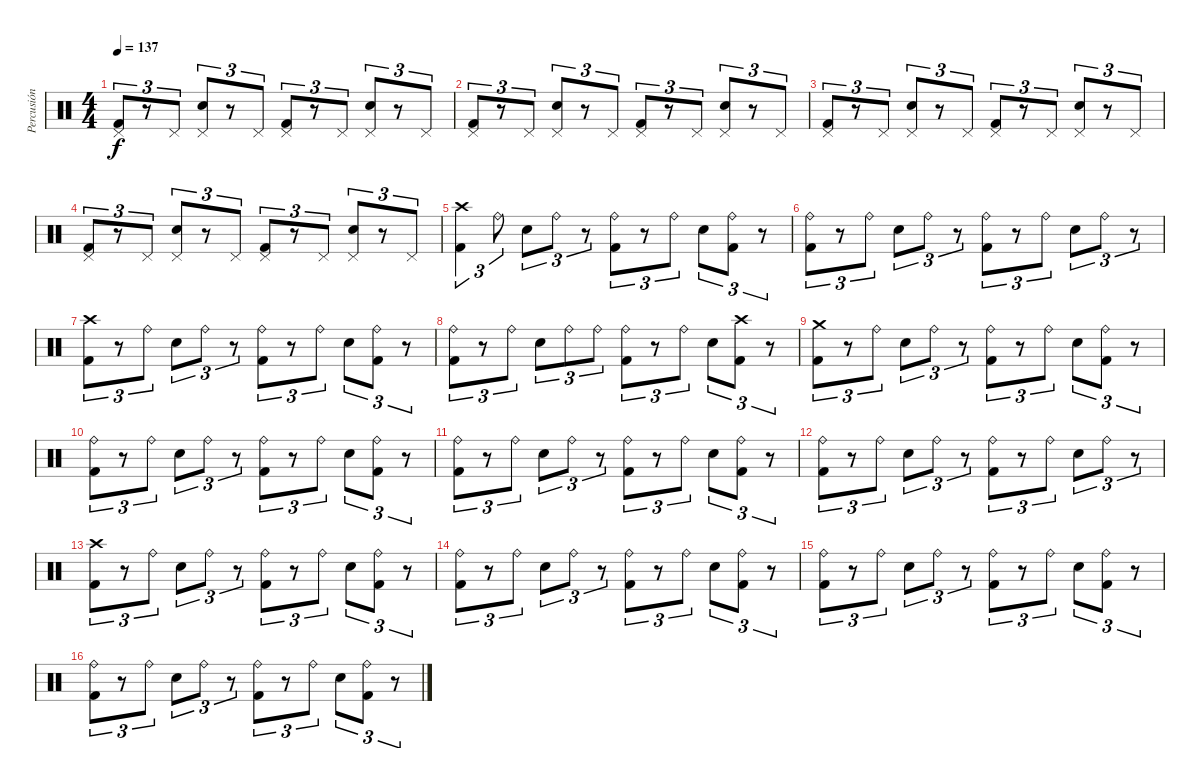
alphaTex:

\track ("Percusión" "Percusión") {instrument percussion}
\staff {score}
\articulation defaults
\ts (4 4)
\tempo 137
\clef neutral
\ks c
("Kick (hit) 2" "Pedal Hi-Hat (hit)").8{tu (3 2) dy f} r.8{tu (3 2)} "Pedal Hi-Hat (hit)".8{tu (3 2)} ("Electric Snare (hit)" "Pedal Hi-Hat (hit)").8{tu (3 2)} r.8{tu (3 2)} "Pedal Hi-Hat (hit)".8{tu (3 2)} ("Kick (hit) 2" "Pedal Hi-Hat (hit)").8{tu (3 2)} r.8{tu (3 2)} "Pedal Hi-Hat (hit)".8{tu (3 2)} ("Electric Snare (hit)" "Pedal Hi-Hat (hit)").8{tu (3 2)} r.8{tu (3 2)} "Pedal Hi-Hat (hit)".8{tu (3 2)} |
("Kick (hit) 2" "Pedal Hi-Hat (hit)").8{tu (3 2)} r.8{tu (3 2)} "Pedal Hi-Hat (hit)".8{tu (3 2)} ("Electric Snare (hit)" "Pedal Hi-Hat (hit)").8{tu (3 2)} r.8{tu (3 2)} "Pedal Hi-Hat (hit)".8{tu (3 2)} ("Kick (hit) 2" "Pedal Hi-Hat (hit)").8{tu (3 2)} r.8{tu (3 2)} "Pedal Hi-Hat (hit)".8{tu (3 2)} ("Electric Snare (hit)" "Pedal Hi-Hat (hit)").8{tu (3 2)} r.8{tu (3 2)} "Pedal Hi-Hat (hit)".8{tu (3 2)} |
("Kick (hit) 2" "Pedal Hi-Hat (hit)").8{tu (3 2)} r.8{tu (3 2)} "Pedal Hi-Hat (hit)".8{tu (3 2)} ("Electric Snare (hit)" "Pedal Hi-Hat (hit)").8{tu (3 2)} r.8{tu (3 2)} "Pedal Hi-Hat (hit)".8{tu (3 2)} ("Kick (hit) 2" "Pedal Hi-Hat (hit)").8{tu (3 2)} r.8{tu (3 2)} "Pedal Hi-Hat (hit)".8{tu (3 2)} ("Electric Snare (hit)" "Pedal Hi-Hat (hit)").8{tu (3 2)} r.8{tu (3 2)} "Pedal Hi-Hat (hit)".8{tu (3 2)} |
("Kick (hit) 2" "Pedal Hi-Hat (hit)").8{tu (3 2)} r.8{tu (3 2)} "Pedal Hi-Hat (hit)".8{tu (3 2)} ("Electric Snare (hit)" "Pedal Hi-Hat (hit)").8{tu (3 2)} r.8{tu (3 2)} "Pedal Hi-Hat (hit)".8{tu (3 2)} ("Kick (hit) 2" "Pedal Hi-Hat (hit)").8{tu (3 2)} r.8{tu (3 2)} "Pedal Hi-Hat (hit)".8{tu (3 2)} ("Electric Snare (hit)" "Pedal Hi-Hat (hit)").8{tu (3 2)} r.8{tu (3 2)} "Pedal Hi-Hat (hit)".8{tu (3 2)} |
("Kick (hit) 2" "Crash high (hit)").4{tu (3 2)} "Ride (bell)".8{tu (3 2)} "Electric Snare (hit)".8{tu (3 2)} "Ride (bell)".8{tu (3 2)} r.8{tu (3 2)} ("Kick (hit) 2" "Ride (bell)").8{tu (3 2)} r.8{tu (3 2)} "Ride (bell)".8{tu (3 2)} "Electric Snare (hit)".8{tu (3 2)} ("Kick (hit) 2" "Ride (bell)").8{tu (3 2)} r.8{tu (3 2)} |
("Kick (hit) 2" "Ride (bell)").8{tu (3 2)} r.8{tu (3 2)} "Ride (bell)".8{tu (3 2)} "Electric Snare (hit)".8{tu (3 2)} "Ride (bell)".8{tu (3 2)} r.8{tu (3 2)} ("Kick (hit) 2" "Ride (bell)").8{tu (3 2)} r.8{tu (3 2)} "Ride (bell)".8{tu (3 2)} "Electric Snare (hit)".8{tu (3 2)} "Ride (bell)".8{tu (3 2)} r.8{tu (3 2)} |
("Kick (hit) 2" "Crash high (hit)").8{tu (3 2)} r.8{tu (3 2)} "Ride (bell)".8{tu (3 2)} "Electric Snare (hit)".8{tu (3 2)} "Ride (bell)".8{tu (3 2)} r.8{tu (3 2)} ("Kick (hit) 2" "Ride (bell)").8{tu (3 2)} r.8{tu (3 2)} "Ride (bell)".8{tu (3 2)} "Electric Snare (hit)".8{tu (3 2)} ("Kick (hit) 2" "Ride (bell)").8{tu (3 2)} r.8{tu (3 2)} |
("Kick (hit) 2" "Ride (bell)").8{tu (3 2)} r.8{tu (3 2)} "Ride (bell)".8{tu (3 2)} "Electric Snare (hit)".8{tu (3 2)} "Ride (bell)".8{tu (3 2)} "Ride (bell)".8{tu (3 2)} ("Kick (hit) 2" "Ride (bell)").8{tu (3 2)} r.8{tu (3 2)} "Ride (bell)".8{tu (3 2)} "Electric Snare (hit)".8{tu (3 2)} ("Kick (hit) 2" "Crash high (hit)").8{tu (3 2)} r.8{tu (3 2)} |
("Kick (hit) 2" "Crash medium (hit)").8{tu (3 2) volume 8} r.8{tu (3 2)} "Ride (bell)".8{tu (3 2)} "Electric Snare (hit)".8{tu (3 2)} "Ride (bell)".8{tu (3 2)} r.8{tu (3 2)} ("Kick (hit) 2" "Ride (bell)").8{tu (3 2)} r.8{tu (3 2)} "Ride (bell)".8{tu (3 2)} "Electric Snare (hit)".8{tu (3 2)} ("Kick (hit) 2" "Ride (bell)").8{tu (3 2)} r.8{tu (3 2)} |
("Kick (hit) 2" "Ride (bell)").8{tu (3 2)} r.8{tu (3 2)} "Ride (bell)".8{tu (3 2)} "Electric Snare (hit)".8{tu (3 2)} "Ride (bell)".8{tu (3 2)} r.8{tu (3 2)} ("Kick (hit) 2" "Ride (bell)").8{tu (3 2)} r.8{tu (3 2)} "Ride (bell)".8{tu (3 2)} "Electric Snare (hit)".8{tu (3 2)} ("Kick (hit) 2" "Ride (bell)").8{tu (3 2)} r.8{tu (3 2)} |
("Kick (hit) 2" "Ride (bell)").8{tu (3 2)} r.8{tu (3 2)} "Ride (bell)".8{tu (3 2)} "Electric Snare (hit)".8{tu (3 2)} "Ride (bell)".8{tu (3 2)} r.8{tu (3 2)} ("Kick (hit) 2" "Ride (bell)").8{tu (3 2)} r.8{tu (3 2)} "Ride (bell)".8{tu (3 2)} "Electric Snare (hit)".8{tu (3 2)} ("Kick (hit) 2" "Ride (bell)").8{tu (3 2)} r.8{tu (3 2)} |
("Kick (hit) 2" "Ride (bell)").8{tu (3 2)} r.8{tu (3 2)} "Ride (bell)".8{tu (3 2)} "Electric Snare (hit)".8{tu (3 2)} "Ride (bell)".8{tu (3 2)} r.8{tu (3 2)} ("Kick (hit) 2" "Ride (bell)").8{tu (3 2)} r.8{tu (3 2)} "Ride (bell)".8{tu (3 2)} "Electric Snare (hit)".8{tu (3 2)} "Ride (bell)".8{tu (3 2)} r.8{tu (3 2)} |
("Kick (hit) 2" "Crash high (hit)").8{tu (3 2) volume 4} r.8{tu (3 2)} "Ride (bell)".8{tu (3 2)} "Electric Snare (hit)".8{tu (3 2)} "Ride (bell)".8{tu (3 2)} r.8{tu (3 2)} ("Kick (hit) 2" "Ride (bell)").8{tu (3 2)} r.8{tu (3 2)} "Ride (bell)".8{tu (3 2)} "Electric Snare (hit)".8{tu (3 2)} ("Kick (hit) 2" "Ride (bell)").8{tu (3 2)} r.8{tu (3 2)} |
("Kick (hit) 2" "Ride (bell)").8{tu (3 2)} r.8{tu (3 2)} "Ride (bell)".8{tu (3 2)} "Electric Snare (hit)".8{tu (3 2)} "Ride (bell)".8{tu (3 2)} r.8{tu (3 2)} ("Kick (hit) 2" "Ride (bell)").8{tu (3 2)} r.8{tu (3 2)} "Ride (bell)".8{tu (3 2)} "Electric Snare (hit)".8{tu (3 2)} ("Kick (hit) 2" "Ride (bell)").8{tu (3 2)} r.8{tu (3 2)} |
("Kick (hit) 2" "Ride (bell)").8{tu (3 2)} r.8{tu (3 2)} "Ride (bell)".8{tu (3 2)} "Electric Snare (hit)".8{tu (3 2)} "Ride (bell)".8{tu (3 2)} r.8{tu (3 2)} ("Kick (hit) 2" "Ride (bell)").8{tu (3 2)} r.8{tu (3 2)} "Ride (bell)".8{tu (3 2)} "Electric Snare (hit)".8{tu (3 2)} ("Kick (hit) 2" "Ride (bell)").8{tu (3 2)} r.8{tu (3 2)} |
("Kick (hit) 2" "Ride (bell)").8{tu (3 2)} r.8{tu (3 2)} "Ride (bell)".8{tu (3 2)} "Electric Snare (hit)".8{tu (3 2)} "Ride (bell)".8{tu (3 2)} r.8{tu (3 2)} ("Kick (hit) 2" "Ride (bell)").8{tu (3 2)} r.8{tu (3 2)} "Ride (bell)".8{tu (3 2)} "Electric Snare (hit)".8{tu (3 2)} ("Kick (hit) 2" "Ride (bell)").8{tu (3 2)} r.8{tu (3 2)}
